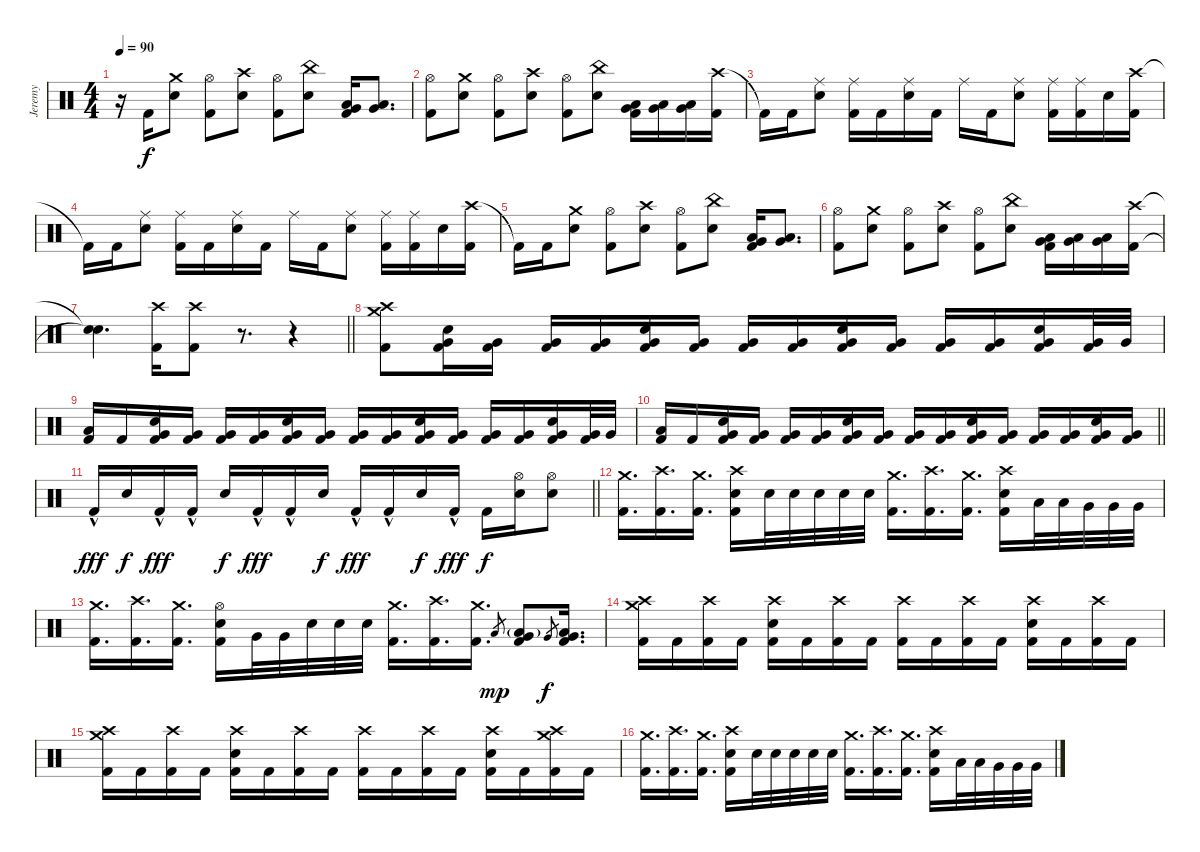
\track ("Jeremy" "Jeremy") {instrument percussion}
\staff {score}
\articulation defaults
\ts (4 4)
\tempo 90
\clef neutral
\ks c
r.16{dy f} "Kick (hit) 2".16 ("Crash medium (hit)" "Snare (hit) 2").8 ("Hi-Hat (open)" "Kick (hit) 2").8 ("Crash high (hit)" "Snare (hit) 2").8 ("Hi-Hat (open)" "Kick (hit) 2").8 ("China (hit)" "Snare (hit) 2").8 ("Very Low Tom (hit)" "Low Floor Tom (hit)" "Kick (hit) 2").16 ("Very Low Tom (hit)" "Low Floor Tom (hit)").8{d} |
("Hi-Hat (open)" "Kick (hit) 2").8 ("Crash medium (hit)" "Snare (hit) 2").8 ("Hi-Hat (open)" "Kick (hit) 2").8 ("Crash high (hit)" "Snare (hit) 2").8 ("Hi-Hat (open)" "Kick (hit) 2").8 ("China (hit)" "Snare (hit) 2").8 ("Very Low Tom (hit)" "Low Floor Tom (hit)" "Kick (hit) 2").16 ("Very Low Tom (hit)" "Low Floor Tom (hit)").16 ("Very Low Tom (hit)" "Low Floor Tom (hit)").16 ("Crash high (hit)" "Kick (hit) 2").16 |
"Kick (hit) 2"{t}.16 "Kick (hit) 2".16 ("Ride (middle)" "Snare (hit) 2").8 ("Ride (middle)" "Kick (hit) 2").16 "Kick (hit) 2".16 ("Ride (middle)" "Snare (hit) 2").16 "Kick (hit) 2".16 "Ride (middle)".16 "Kick (hit) 2".16 ("Ride (middle)" "Snare (hit) 2").8 ("Ride (middle)" "Kick (hit) 2").16 ("Ride (middle)" "Kick (hit) 2").16 "Snare (hit) 2".16 ("Crash high (hit)" "Kick (hit) 2").16 |
"Kick (hit) 2"{t}.16 "Kick (hit) 2".16 ("Ride (middle)" "Snare (hit) 2").8 ("Ride (middle)" "Kick (hit) 2").16 "Kick (hit) 2".16 ("Ride (middle)" "Snare (hit) 2").16 "Kick (hit) 2".16 "Ride (middle)".16 "Kick (hit) 2".16 ("Ride (middle)" "Snare (hit) 2").8 ("Ride (middle)" "Kick (hit) 2").16 ("Ride (middle)" "Kick (hit) 2").16 "Snare (hit) 2".16 ("Crash high (hit)" "Kick (hit) 2").16 |
"Kick (hit) 2"{t}.16 "Kick (hit) 2".16 ("Crash medium (hit)" "Snare (hit) 2").8 ("Hi-Hat (open)" "Kick (hit) 2").8 ("Crash high (hit)" "Snare (hit) 2").8 ("Hi-Hat (open)" "Kick (hit) 2").8 ("China (hit)" "Snare (hit) 2").8 ("Very Low Tom (hit)" "Low Floor Tom (hit)" "Kick (hit) 2").16 ("Very Low Tom (hit)" "Low Floor Tom (hit)").8{d} |
("Hi-Hat (open)" "Kick (hit) 2").8 ("Crash medium (hit)" "Snare (hit) 2").8 ("Hi-Hat (open)" "Kick (hit) 2").8 ("Crash high (hit)" "Snare (hit) 2").8 ("Hi-Hat (open)" "Kick (hit) 2").8 ("China (hit)" "Snare (hit) 2").8 ("Very Low Tom (hit)" "Low Floor Tom (hit)" "Kick (hit) 2").16 ("Very Low Tom (hit)" "Low Floor Tom (hit)").16 ("Very Low Tom (hit)" "Low Floor Tom (hit)").16 ("Crash high (hit)" "Kick (hit) 2").16 |
\barLineRight lightlight
("Snare (hit)"{t} "Snare (hit)"{t}).4{d} ("Crash high (hit)" "Kick (hit) 2").16 ("Crash high (hit)" "Kick (hit) 2").8 r.8{d volume 0} r.4 |
("Crash high (hit)" "Crash medium (hit)" "Kick (hit) 2").8{volume 16} ("Snare (hit) 2" "Very Low Tom (hit)" "Kick (hit) 2").16 ("Very Low Tom (hit)" "Kick (hit) 2").16 ("Very Low Tom (hit)" "Kick (hit) 2").16 ("Very Low Tom (hit)" "Kick (hit) 2").16 ("Snare (hit) 2" "Very Low Tom (hit)" "Kick (hit) 2").16 ("Very Low Tom (hit)" "Kick (hit) 2").16 ("Very Low Tom (hit)" "Kick (hit) 2").16 ("Very Low Tom (hit)" "Kick (hit) 2").16 ("Snare (hit) 2" "Very Low Tom (hit)" "Kick (hit) 2").16 ("Very Low Tom (hit)" "Kick (hit) 2").16 ("Very Low Tom (hit)" "Kick (hit) 2").16 ("Very Low Tom (hit)" "Kick (hit) 2").16 ("Snare (hit) 2" "Very Low Tom (hit)" "Kick (hit) 2").16 ("Very Low Tom (hit)" "Kick (hit) 2").32 "Very Low Tom (hit)".32 |
("Low Floor Tom (hit)" "Kick (hit) 2").16 "Kick (hit) 2".16 ("Snare (hit) 2" "Very Low Tom (hit)" "Kick (hit) 2").16 ("Very Low Tom (hit)" "Kick (hit) 2").16 ("Very Low Tom (hit)" "Kick (hit) 2").16 ("Very Low Tom (hit)" "Kick (hit) 2").16 ("Snare (hit) 2" "Very Low Tom (hit)" "Kick (hit) 2").16 ("Very Low Tom (hit)" "Kick (hit) 2").16 ("Very Low Tom (hit)" "Kick (hit) 2").16 ("Very Low Tom (hit)" "Kick (hit) 2").16 ("Snare (hit) 2" "Very Low Tom (hit)" "Kick (hit) 2").16 ("Very Low Tom (hit)" "Kick (hit) 2").16 ("Very Low Tom (hit)" "Kick (hit) 2").16 ("Very Low Tom (hit)" "Kick (hit) 2").16 ("Snare (hit) 2" "Very Low Tom (hit)" "Kick (hit) 2").16 ("Very Low Tom (hit)" "Kick (hit) 2").32 "Very Low Tom (hit)".32 |
\barLineRight lightlight
("Low Floor Tom (hit)" "Kick (hit) 2").16 "Kick (hit) 2".16 ("Snare (hit) 2" "Very Low Tom (hit)" "Kick (hit) 2").16 ("Very Low Tom (hit)" "Kick (hit) 2").16 ("Very Low Tom (hit)" "Kick (hit) 2").16 ("Very Low Tom (hit)" "Kick (hit) 2").16 ("Snare (hit) 2" "Very Low Tom (hit)" "Kick (hit) 2").16 ("Very Low Tom (hit)" "Kick (hit) 2").16 ("Very Low Tom (hit)" "Kick (hit) 2").16 ("Very Low Tom (hit)" "Kick (hit) 2").16 ("Snare (hit) 2" "Very Low Tom (hit)" "Kick (hit) 2").16 ("Very Low Tom (hit)" "Kick (hit) 2").16 ("Very Low Tom (hit)" "Kick (hit) 2").16 ("Very Low Tom (hit)" "Kick (hit) 2").16 ("Snare (hit) 2" "Very Low Tom (hit)" "Kick (hit) 2").16 ("Very Low Tom (hit)" "Kick (hit) 2").16 |
\barLineRight lightlight "Kick (hit) 2"{hac}.16{dy fff} "Snare (hit) 2".16{dy f} "Kick (hit) 2"{hac}.16{dy fff} "Kick (hit) 2"{hac}.16 "Snare (hit) 2".16{dy f} "Kick (hit) 2"{hac}.16{dy fff} "Kick (hit) 2"{hac}.16 "Snare (hit) 2".16{dy f} "Kick (hit) 2"{hac}.16{dy fff} "Kick (hit) 2"{hac}.16 "Snare (hit) 2".16{dy f} "Kick (hit) 2"{hac}.16{dy fff} "Kick (hit) 2".16{dy f}
("Snare (hit) 2" "Hi-Hat (open)").16 ("Hi-Hat (open)" "Snare (hit) 2").8 |
("Crash medium (hit)" "Kick (hit) 2").16{d} ("Crash high (hit)" "Kick (hit) 2").16{d} ("Crash medium (hit)" "Kick (hit) 2").16{d} ("Crash high (hit)" "Snare (hit) 2" "Kick (hit) 2").16 "Snare (hit) 2".32 "Snare (hit) 2".32 "Snare (hit) 2".32 "Snare (hit) 2".32 "Snare (hit) 2".32 ("Crash medium (hit)" "Kick (hit) 2").16{d} ("Crash high (hit)" "Kick (hit) 2").16{d} ("Crash medium (hit)" "Kick (hit) 2").16{d} ("Crash high (hit)" "Snare (hit) 2" "Kick (hit) 2").16 "Low Tom (hit)".32 "Low Tom (hit)".32 "Very Low Tom (hit)".32 "Very Low Tom (hit)".32 "Very Low Tom (hit)".32 |
("Crash medium (hit)" "Kick (hit) 2").16{d} ("Crash high (hit)" "Kick (hit) 2").16{d} ("Crash medium (hit)" "Kick (hit) 2").16{d} ("Hi-Hat (open)" "Snare (hit) 2" "Kick (hit) 2").16 "Very Low Tom (hit)".32 "Very Low Tom (hit)".32 "Snare (hit) 2".32 "Snare (hit) 2".32 "Snare (hit) 2".32 ("Crash medium (hit)" "Kick (hit) 2").16{d} ("Crash high (hit)" "Kick (hit) 2").16{d} ("Crash medium (hit)" "Kick (hit) 2").16{d} "Low Tom (hit)".8{gr dy mp} ("Low Tom (hit)"{g} "Very Low Tom (hit)" "Kick (hit) 2").8 "Very Low Tom (hit)".8{gr dy f} ("Very Low Tom (hit)" "Low Floor Tom (hit)" "Kick (hit) 2").16{d} |
("Crash high (hit)" "Crash medium (hit)" "Kick (hit) 2").16 "Kick (hit) 2".16 ("Crash high (hit)" "Kick (hit) 2").16 "Kick (hit) 2".16 ("Crash high (hit)" "Snare (hit) 2" "Kick (hit) 2").16 "Kick (hit) 2".16 ("Crash high (hit)" "Kick (hit) 2").16 "Kick (hit) 2".16 ("Crash high (hit)" "Kick (hit) 2").16 "Kick (hit) 2".16 ("Crash high (hit)" "Kick (hit) 2").16 "Kick (hit) 2".16 ("Crash high (hit)" "Snare (hit) 2" "Kick (hit) 2").16 "Kick (hit) 2".16 ("Crash high (hit)" "Kick (hit) 2").16 "Kick (hit) 2".16 |
("Crash high (hit)" "Crash medium (hit)" "Kick (hit) 2").16 "Kick (hit) 2".16 ("Crash high (hit)" "Kick (hit) 2").16 "Kick (hit) 2".16 ("Crash high (hit)" "Snare (hit) 2" "Kick (hit) 2").16 "Kick (hit) 2".16 ("Crash high (hit)" "Kick (hit) 2").16 "Kick (hit) 2".16 ("Crash high (hit)" "Kick (hit) 2").16 "Kick (hit) 2".16 ("Crash high (hit)" "Kick (hit) 2").16 "Kick (hit) 2".16 ("Crash high (hit)" "Snare (hit) 2" "Kick (hit) 2").16 "Kick (hit) 2".16 ("Crash high (hit)" "Crash medium (hit)" "Kick (hit) 2").16 "Kick (hit) 2".16 |
("Crash medium (hit)" "Kick (hit) 2").16{d} ("Crash high (hit)" "Kick (hit) 2").16{d} ("Crash medium (hit)" "Kick (hit) 2").16{d} ("Crash high (hit)" "Snare (hit) 2" "Kick (hit) 2").16 "Snare (hit) 2".32 "Snare (hit) 2".32 "Snare (hit) 2".32 "Snare (hit) 2".32 "Snare (hit) 2".32 ("Crash medium (hit)" "Kick (hit) 2").16{d} ("Crash high (hit)" "Kick (hit) 2").16{d} ("Crash medium (hit)" "Kick (hit) 2").16{d} ("Crash high (hit)" "Snare (hit) 2" "Kick (hit) 2").16 "Low Tom (hit)".32 "Low Tom (hit)".32 "Very Low Tom (hit)".32 "Very Low Tom (hit)".32 "Very Low Tom (hit)".32
